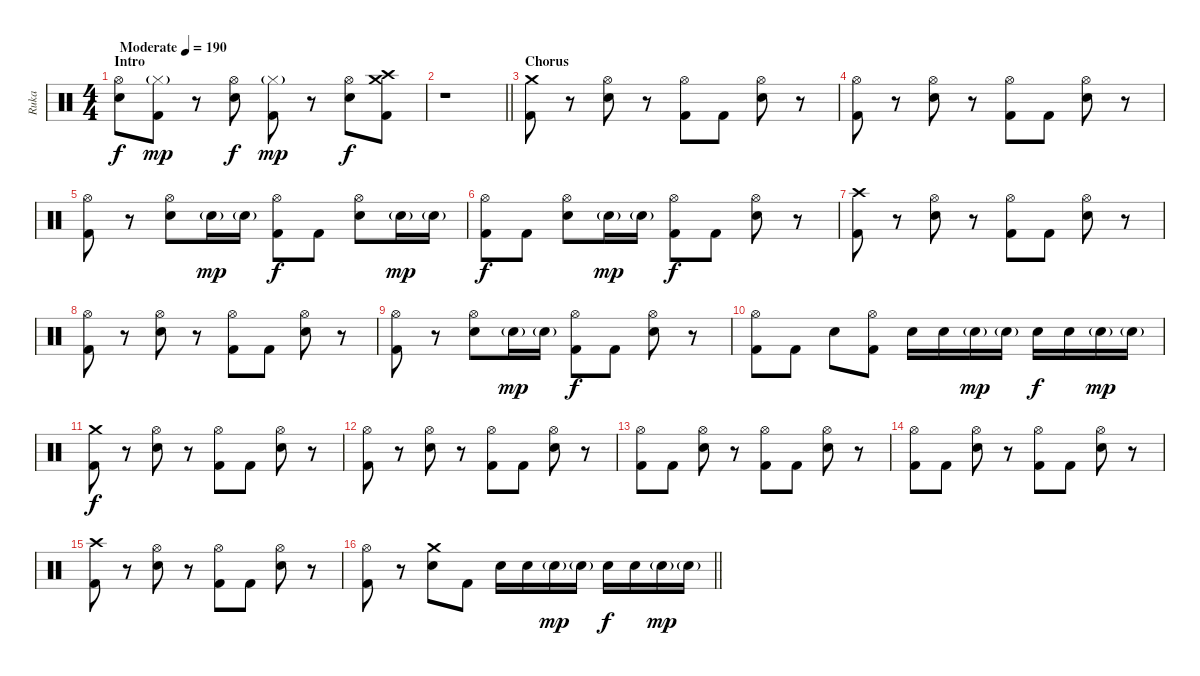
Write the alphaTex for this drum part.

\track ("Ruka " "Ruka ") {instrument percussion}
\staff {score}
\articulation defaults
\ts (4 4)
\section ("" "Intro")
\tempo (190 "Moderate")
\clef neutral
\ks c
("Hi-Hat (open)" "Electric Snare (hit)").8{dy f} ("Hi-Hat (closed)"{g} "Kick (hit) 2").8{dy mp} r.8 ("Hi-Hat (open)" "Electric Snare (hit)").8{dy f} ("Hi-Hat (closed)"{g} "Kick (hit) 2").8{dy mp} r.8 ("Hi-Hat (open)" "Electric Snare (hit)").8{dy f} ("Crash high (hit)" "Crash medium (hit)" "Kick (hit) 2").8 |
\barLineRight lightlight
r.1 |
\section ("" "Chorus")
("Crash medium (hit)" "Kick (hit) 2").8 r.8 ("Hi-Hat (open)" "Electric Snare (hit)").8 r.8 ("Hi-Hat (open)" "Kick (hit) 2").8 "Kick (hit) 2".8 ("Hi-Hat (open)" "Electric Snare (hit)").8 r.8 |
("Hi-Hat (open)" "Kick (hit) 2").8 r.8 ("Hi-Hat (open)" "Electric Snare (hit)").8 r.8 ("Hi-Hat (open)" "Kick (hit) 2").8 "Kick (hit) 2".8 ("Hi-Hat (open)" "Electric Snare (hit)").8 r.8 |
("Hi-Hat (open)" "Kick (hit) 2").8 r.8 ("Hi-Hat (open)" "Electric Snare (hit)").8 "Electric Snare (hit)"{g}.16{dy mp} "Electric Snare (hit)"{g}.16 ("Hi-Hat (open)" "Kick (hit) 2").8{dy f} "Kick (hit) 2".8 ("Hi-Hat (open)" "Electric Snare (hit)").8 "Electric Snare (hit)"{g}.16{dy mp} "Electric Snare (hit)"{g}.16 |
("Hi-Hat (open)" "Kick (hit) 2").8{dy f} "Kick (hit) 2".8 ("Hi-Hat (open)" "Electric Snare (hit)").8 "Electric Snare (hit)"{g}.16{dy mp} "Electric Snare (hit)"{g}.16 ("Hi-Hat (open)" "Kick (hit) 2").8{dy f} "Kick (hit) 2".8 ("Hi-Hat (open)" "Electric Snare (hit)").8 r.8 |
("Crash high (hit)" "Kick (hit) 2").8 r.8 ("Hi-Hat (open)" "Electric Snare (hit)").8 r.8 ("Hi-Hat (open)" "Kick (hit) 2").8 "Kick (hit) 2".8 ("Hi-Hat (open)" "Electric Snare (hit)").8 r.8 |
("Hi-Hat (open)" "Kick (hit) 2").8 r.8 ("Hi-Hat (open)" "Electric Snare (hit)").8 r.8 ("Hi-Hat (open)" "Kick (hit) 2").8 "Kick (hit) 2".8 ("Hi-Hat (open)" "Electric Snare (hit)").8 r.8 |
("Hi-Hat (open)" "Kick (hit) 2").8 r.8 ("Hi-Hat (open)" "Electric Snare (hit)").8 "Electric Snare (hit)"{g}.16{dy mp} "Electric Snare (hit)"{g}.16 ("Hi-Hat (open)" "Kick (hit) 2").8{dy f} "Kick (hit) 2".8 ("Hi-Hat (open)" "Electric Snare (hit)").8 r.8 |
("Hi-Hat (open)" "Kick (hit) 2").8 "Kick (hit) 2".8 "Electric Snare (hit)".8 ("Hi-Hat (open)" "Kick (hit) 2").8 "Electric Snare (hit)".16 "Electric Snare (hit)".16 "Electric Snare (hit)"{g}.16{dy mp} "Electric Snare (hit)"{g}.16 "Electric Snare (hit)".16{dy f} "Electric Snare (hit)".16 "Electric Snare (hit)"{g}.16{dy mp} "Electric Snare (hit)"{g}.16 |
("Crash medium (hit)" "Kick (hit) 2").8{dy f} r.8 ("Hi-Hat (open)" "Electric Snare (hit)").8 r.8 ("Hi-Hat (open)" "Kick (hit) 2").8 "Kick (hit) 2".8 ("Hi-Hat (open)" "Electric Snare (hit)").8 r.8 |
("Hi-Hat (open)" "Kick (hit) 2").8 r.8 ("Hi-Hat (open)" "Electric Snare (hit)").8 r.8 ("Hi-Hat (open)" "Kick (hit) 2").8 "Kick (hit) 2".8 ("Hi-Hat (open)" "Electric Snare (hit)").8 r.8 |
("Hi-Hat (open)" "Kick (hit) 2").8 "Kick (hit) 2".8 ("Hi-Hat (open)" "Electric Snare (hit)").8 r.8 ("Hi-Hat (open)" "Kick (hit) 2").8 "Kick (hit) 2".8 ("Hi-Hat (open)" "Electric Snare (hit)").8 r.8 |
("Hi-Hat (open)" "Kick (hit) 2").8 "Kick (hit) 2".8 ("Hi-Hat (open)" "Electric Snare (hit)").8 r.8 ("Hi-Hat (open)" "Kick (hit) 2").8 "Kick (hit) 2".8 ("Hi-Hat (open)" "Electric Snare (hit)").8 r.8 |
("Crash high (hit)" "Kick (hit) 2").8 r.8 ("Hi-Hat (open)" "Electric Snare (hit)").8 r.8 ("Hi-Hat (open)" "Kick (hit) 2").8 "Kick (hit) 2".8 ("Hi-Hat (open)" "Electric Snare (hit)").8 r.8 |
\barLineRight lightlight
("Hi-Hat (open)" "Kick (hit) 2").8 r.8 ("Crash medium (hit)" "Electric Snare (hit)").8 "Kick (hit) 2".8 "Electric Snare (hit)".16 "Electric Snare (hit)".16 "Electric Snare (hit)"{g}.16{dy mp} "Electric Snare (hit)"{g}.16 "Electric Snare (hit)".16{dy f} "Electric Snare (hit)".16 "Electric Snare (hit)"{g}.16{dy mp} "Electric Snare (hit)"{g}.16
